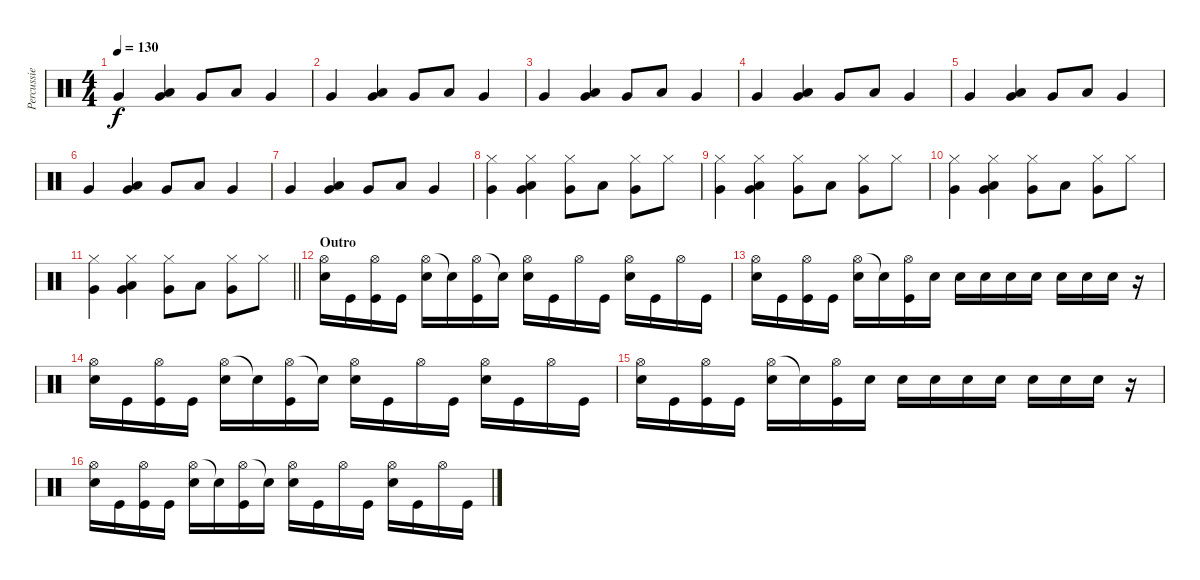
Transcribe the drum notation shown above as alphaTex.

\track ("Percussie" "Percussie") {instrument percussion}
\staff {score}
\articulation defaults
\ts (4 4)
\tempo 130
\clef neutral
\ks c "Very Low Tom (hit)".4{dy f}
("Very Low Tom (hit)" "Low Floor Tom (hit)").4 "Very Low Tom (hit)".8 "Low Floor Tom (hit)".8 "Very Low Tom (hit)".4 |
"Very Low Tom (hit)".4 ("Very Low Tom (hit)" "Low Floor Tom (hit)").4 "Very Low Tom (hit)".8 "Low Floor Tom (hit)".8 "Very Low Tom (hit)".4 |
"Very Low Tom (hit)".4 ("Very Low Tom (hit)" "Low Floor Tom (hit)").4 "Very Low Tom (hit)".8 "Low Floor Tom (hit)".8 "Very Low Tom (hit)".4 |
"Very Low Tom (hit)".4 ("Very Low Tom (hit)" "Low Floor Tom (hit)").4 "Very Low Tom (hit)".8 "Low Floor Tom (hit)".8 "Very Low Tom (hit)".4 |
"Very Low Tom (hit)".4 ("Very Low Tom (hit)" "Low Floor Tom (hit)").4 "Very Low Tom (hit)".8 "Low Floor Tom (hit)".8 "Very Low Tom (hit)".4 |
"Very Low Tom (hit)".4 ("Very Low Tom (hit)" "Low Floor Tom (hit)").4 "Very Low Tom (hit)".8 "Low Floor Tom (hit)".8 "Very Low Tom (hit)".4 |
"Very Low Tom (hit)".4 ("Very Low Tom (hit)" "Low Floor Tom (hit)").4 "Very Low Tom (hit)".8 "Low Floor Tom (hit)".8 "Very Low Tom (hit)".4 |
("Hi-Hat (closed)" "Very Low Tom (hit)").4 ("Hi-Hat (closed)" "Very Low Tom (hit)" "Low Floor Tom (hit)").4 ("Hi-Hat (closed)" "Very Low Tom (hit)").8 "Low Floor Tom (hit)".8 ("Hi-Hat (closed)" "Very Low Tom (hit)").8 "Hi-Hat (closed)".8 |
("Hi-Hat (closed)" "Very Low Tom (hit)").4 ("Hi-Hat (closed)" "Very Low Tom (hit)" "Low Floor Tom (hit)").4 ("Hi-Hat (closed)" "Very Low Tom (hit)").8 "Low Floor Tom (hit)".8 ("Hi-Hat (closed)" "Very Low Tom (hit)").8 "Hi-Hat (closed)".8 |
("Hi-Hat (closed)" "Very Low Tom (hit)").4 ("Hi-Hat (closed)" "Very Low Tom (hit)" "Low Floor Tom (hit)").4 ("Hi-Hat (closed)" "Very Low Tom (hit)").8 "Low Floor Tom (hit)".8 ("Hi-Hat (closed)" "Very Low Tom (hit)").8 "Hi-Hat (closed)".8 |
\barLineRight lightlight
("Hi-Hat (closed)" "Very Low Tom (hit)").4 ("Hi-Hat (closed)" "Very Low Tom (hit)" "Low Floor Tom (hit)").4 ("Hi-Hat (closed)" "Very Low Tom (hit)").8 "Low Floor Tom (hit)".8 ("Hi-Hat (closed)" "Very Low Tom (hit)").8 "Hi-Hat (closed)".8 |
\section ("" "Outro")
("Hi-Hat (open)" "Snare (hit) 2").16 "Kick (hit)".16 ("Hi-Hat (open)" "Kick (hit)").16 "Kick (hit)".16 ("Hi-Hat (open)" "Snare (hit) 2").16 "Snare (hit)"{t}.16 ("Hi-Hat (open)" "Kick (hit)").16 "Snare (hit)"{t}.16 ("Hi-Hat (open)" "Snare (hit) 2").16 "Kick (hit)".16 "Hi-Hat (open)".16 "Kick (hit)".16 ("Hi-Hat (open)" "Snare (hit) 2").16 "Kick (hit)".16 "Hi-Hat (open)".16 "Kick (hit)".16 |
("Hi-Hat (open)" "Snare (hit) 2").16 "Kick (hit)".16 ("Hi-Hat (open)" "Kick (hit)").16 "Kick (hit)".16 ("Hi-Hat (open)" "Snare (hit) 2").16 "Snare (hit)"{t}.16 ("Hi-Hat (open)" "Kick (hit)").16 "Snare (hit) 2".16 "Snare (hit) 2".16 "Snare (hit) 2".16 "Snare (hit) 2".16 "Snare (hit) 2".16 "Snare (hit) 2".16 "Snare (hit) 2".16 "Snare (hit) 2".16 r.16 |
("Hi-Hat (open)" "Snare (hit) 2").16 "Kick (hit)".16 ("Hi-Hat (open)" "Kick (hit)").16 "Kick (hit)".16 ("Hi-Hat (open)" "Snare (hit) 2").16 "Snare (hit)"{t}.16 ("Hi-Hat (open)" "Kick (hit)").16 "Snare (hit)"{t}.16 ("Hi-Hat (open)" "Snare (hit) 2").16 "Kick (hit)".16 "Hi-Hat (open)".16 "Kick (hit)".16 ("Hi-Hat (open)" "Snare (hit) 2").16 "Kick (hit)".16 "Hi-Hat (open)".16 "Kick (hit)".16 |
("Hi-Hat (open)" "Snare (hit) 2").16 "Kick (hit)".16 ("Hi-Hat (open)" "Kick (hit)").16 "Kick (hit)".16 ("Hi-Hat (open)" "Snare (hit) 2").16 "Snare (hit)"{t}.16 ("Hi-Hat (open)" "Kick (hit)").16 "Snare (hit) 2".16 "Snare (hit) 2".16 "Snare (hit) 2".16 "Snare (hit) 2".16 "Snare (hit) 2".16 "Snare (hit) 2".16 "Snare (hit) 2".16 "Snare (hit) 2".16 r.16 |
("Hi-Hat (open)" "Snare (hit) 2").16 "Kick (hit)".16 ("Hi-Hat (open)" "Kick (hit)").16 "Kick (hit)".16 ("Hi-Hat (open)" "Snare (hit) 2").16 "Snare (hit)"{t}.16 ("Hi-Hat (open)" "Kick (hit)").16 "Snare (hit)"{t}.16 ("Hi-Hat (open)" "Snare (hit) 2").16 "Kick (hit)".16 "Hi-Hat (open)".16 "Kick (hit)".16 ("Hi-Hat (open)" "Snare (hit) 2").16 "Kick (hit)".16 "Hi-Hat (open)".16 "Kick (hit)".16
